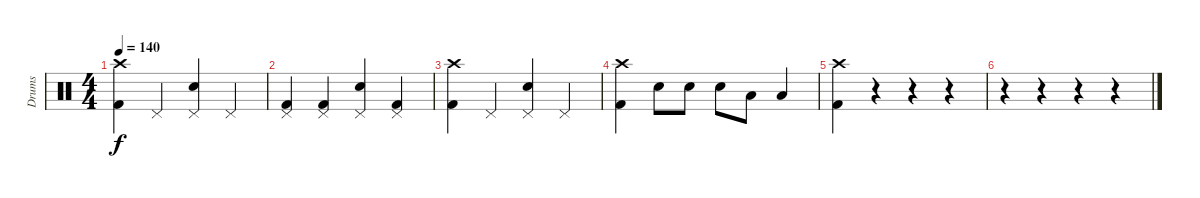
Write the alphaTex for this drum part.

\track ("Drums" "Drums") {instrument percussion}
\staff {score}
\articulation defaults
\ts (4 4)
\tempo 140
\clef neutral
\ks c
("Crash high (hit)" "Kick (hit) 2").4{dy f} "Pedal Hi-Hat (hit)".4 ("Pedal Hi-Hat (hit)" "Electric Snare (hit)").4 "Pedal Hi-Hat (hit)".4 |
("Pedal Hi-Hat (hit)" "Kick (hit) 2").4 ("Pedal Hi-Hat (hit)" "Kick (hit) 2").4 ("Pedal Hi-Hat (hit)" "Electric Snare (hit)").4 ("Pedal Hi-Hat (hit)" "Kick (hit) 2").4 |
("Crash high (hit)" "Kick (hit) 2").4 "Pedal Hi-Hat (hit)".4 ("Pedal Hi-Hat (hit)" "Electric Snare (hit)").4 "Pedal Hi-Hat (hit)".4 |
("Crash high (hit)" "Kick (hit) 2").4 "Electric Snare (hit)".8 "Electric Snare (hit)".8 "Electric Snare (hit)".8 "Low Tom (hit)".8 "Low Tom (hit)".4 |
("Crash high (hit)" "Kick (hit) 2").4 r.4 r.4 r.4 |
r.4 r.4 r.4 r.4
